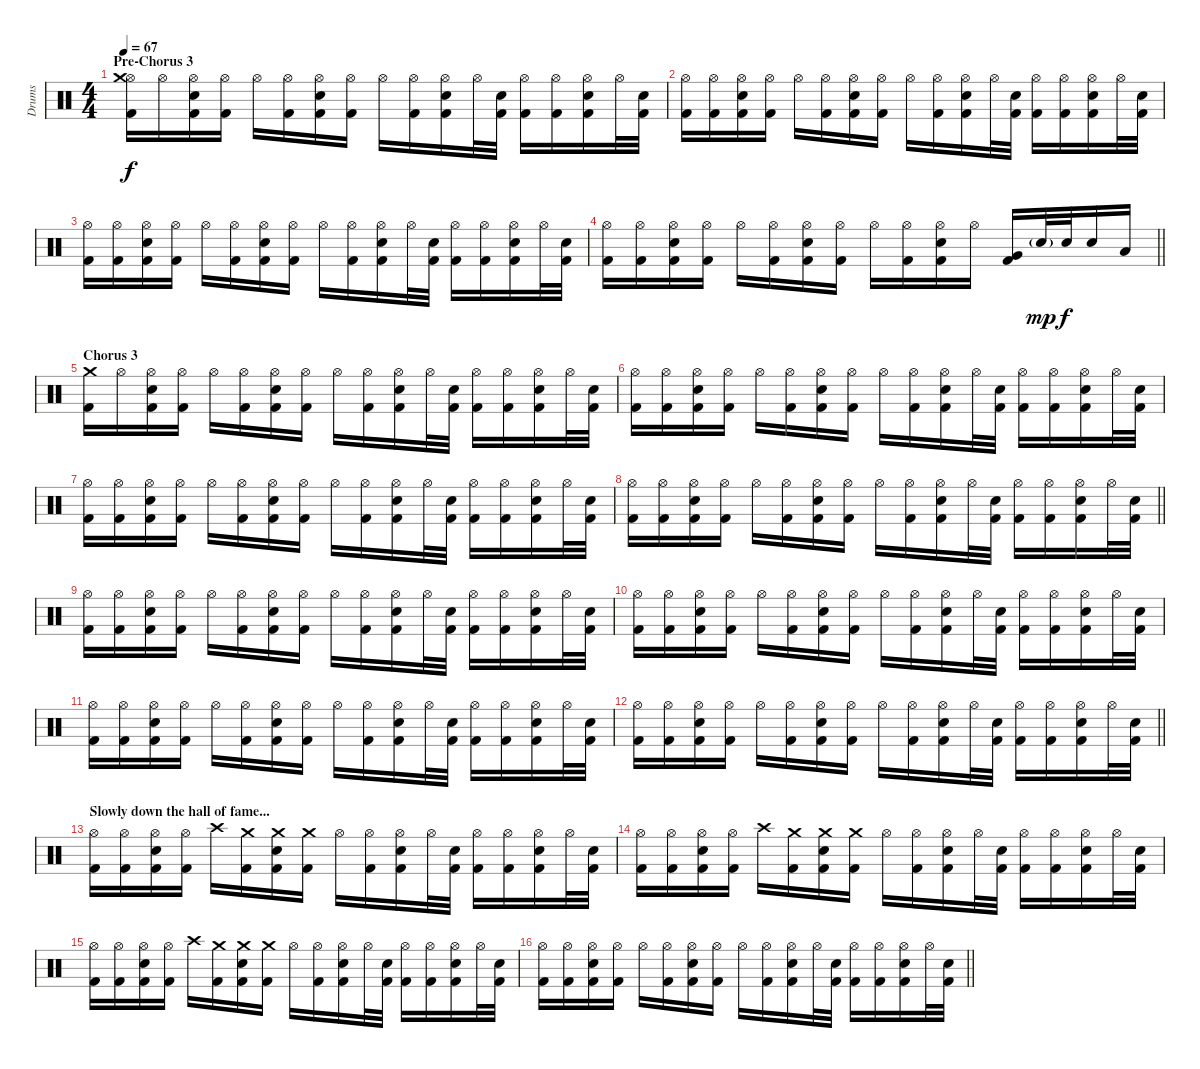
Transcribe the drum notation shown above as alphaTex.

\track ("Drums" "Drums") {instrument percussion}
\staff {score}
\articulation defaults
\ts (4 4)
\section ("" "Pre-Chorus 3")
\tempo 67
\clef neutral
\ks c
("Kick (hit) 2" "Hi-Hat (open)" "Crash medium (hit)").16{dy f} "Hi-Hat (open)".16 ("Kick (hit) 2" "Snare (hit) 2" "Hi-Hat (open)").16 ("Kick (hit) 2" "Hi-Hat (open)").16 "Hi-Hat (open)".16 ("Kick (hit) 2" "Hi-Hat (open)").16 ("Kick (hit) 2" "Snare (hit) 2" "Hi-Hat (open)").16 ("Kick (hit) 2" "Hi-Hat (open)").16 "Hi-Hat (open)".16 ("Kick (hit) 2" "Hi-Hat (open)").16 ("Kick (hit) 2" "Snare (hit) 2" "Hi-Hat (open)").16 "Hi-Hat (open)".32 ("Kick (hit) 2" "Snare (hit) 2").32 ("Kick (hit) 2" "Hi-Hat (open)").16 ("Kick (hit) 2" "Hi-Hat (open)").16 ("Kick (hit) 2" "Snare (hit) 2" "Hi-Hat (open)").16 "Hi-Hat (open)".32 ("Kick (hit) 2" "Snare (hit) 2").32 |
("Kick (hit) 2" "Hi-Hat (open)").16 ("Kick (hit) 2" "Hi-Hat (open)").16 ("Kick (hit) 2" "Snare (hit) 2" "Hi-Hat (open)").16 ("Kick (hit) 2" "Hi-Hat (open)").16 "Hi-Hat (open)".16 ("Kick (hit) 2" "Hi-Hat (open)").16 ("Kick (hit) 2" "Snare (hit) 2" "Hi-Hat (open)").16 ("Kick (hit) 2" "Hi-Hat (open)").16 "Hi-Hat (open)".16 ("Kick (hit) 2" "Hi-Hat (open)").16 ("Kick (hit) 2" "Snare (hit) 2" "Hi-Hat (open)").16 "Hi-Hat (open)".32 ("Kick (hit) 2" "Snare (hit) 2").32 ("Kick (hit) 2" "Hi-Hat (open)").16 ("Kick (hit) 2" "Hi-Hat (open)").16 ("Kick (hit) 2" "Snare (hit) 2" "Hi-Hat (open)").16 "Hi-Hat (open)".32 ("Kick (hit) 2" "Snare (hit) 2").32 |
("Kick (hit) 2" "Hi-Hat (open)").16 ("Kick (hit) 2" "Hi-Hat (open)").16 ("Kick (hit) 2" "Snare (hit) 2" "Hi-Hat (open)").16 ("Kick (hit) 2" "Hi-Hat (open)").16 "Hi-Hat (open)".16 ("Kick (hit) 2" "Hi-Hat (open)").16 ("Kick (hit) 2" "Snare (hit) 2" "Hi-Hat (open)").16 ("Kick (hit) 2" "Hi-Hat (open)").16 "Hi-Hat (open)".16 ("Kick (hit) 2" "Hi-Hat (open)").16 ("Kick (hit) 2" "Snare (hit) 2" "Hi-Hat (open)").16 "Hi-Hat (open)".32 ("Kick (hit) 2" "Snare (hit) 2").32 ("Kick (hit) 2" "Hi-Hat (open)").16 ("Kick (hit) 2" "Hi-Hat (open)").16 ("Kick (hit) 2" "Snare (hit) 2" "Hi-Hat (open)").16 "Hi-Hat (open)".32 ("Kick (hit) 2" "Snare (hit) 2").32 |
\barLineRight lightlight
("Kick (hit) 2" "Hi-Hat (open)").16 ("Kick (hit) 2" "Hi-Hat (open)").16 ("Kick (hit) 2" "Snare (hit) 2" "Hi-Hat (open)").16 ("Kick (hit) 2" "Hi-Hat (open)").16 "Hi-Hat (open)".16 ("Kick (hit) 2" "Hi-Hat (open)").16 ("Kick (hit) 2" "Snare (hit) 2" "Hi-Hat (open)").16 ("Kick (hit) 2" "Hi-Hat (open)").16 "Hi-Hat (open)".16 ("Kick (hit) 2" "Hi-Hat (open)").16 ("Kick (hit) 2" "Snare (hit) 2" "Hi-Hat (open)").16 "Hi-Hat (open)".16 ("Kick (hit) 2" "Very Low Tom (hit)").16 "Snare (hit) 2"{g}.32{dy mp} "Snare (hit) 2".32{dy f} "Snare (hit) 2".16 "Low Floor Tom (hit)".16 |
\section ("" "Chorus 3")
("Kick (hit) 2" "Crash medium (hit)").16 "Hi-Hat (open)".16 ("Kick (hit) 2" "Snare (hit) 2" "Hi-Hat (open)").16 ("Kick (hit) 2" "Hi-Hat (open)").16 "Hi-Hat (open)".16 ("Kick (hit) 2" "Hi-Hat (open)").16 ("Kick (hit) 2" "Snare (hit) 2" "Hi-Hat (open)").16 ("Kick (hit) 2" "Hi-Hat (open)").16 "Hi-Hat (open)".16 ("Kick (hit) 2" "Hi-Hat (open)").16 ("Kick (hit) 2" "Snare (hit) 2" "Hi-Hat (open)").16 "Hi-Hat (open)".32 ("Kick (hit) 2" "Snare (hit) 2").32 ("Kick (hit) 2" "Hi-Hat (open)").16 ("Kick (hit) 2" "Hi-Hat (open)").16 ("Kick (hit) 2" "Snare (hit) 2" "Hi-Hat (open)").16 "Hi-Hat (open)".32 ("Kick (hit) 2" "Snare (hit) 2").32 |
("Kick (hit) 2" "Hi-Hat (open)").16 ("Kick (hit) 2" "Hi-Hat (open)").16 ("Kick (hit) 2" "Snare (hit) 2" "Hi-Hat (open)").16 ("Kick (hit) 2" "Hi-Hat (open)").16 "Hi-Hat (open)".16 ("Kick (hit) 2" "Hi-Hat (open)").16 ("Kick (hit) 2" "Snare (hit) 2" "Hi-Hat (open)").16 ("Kick (hit) 2" "Hi-Hat (open)").16 "Hi-Hat (open)".16 ("Kick (hit) 2" "Hi-Hat (open)").16 ("Kick (hit) 2" "Snare (hit) 2" "Hi-Hat (open)").16 "Hi-Hat (open)".32 ("Kick (hit) 2" "Snare (hit) 2").32 ("Kick (hit) 2" "Hi-Hat (open)").16 ("Kick (hit) 2" "Hi-Hat (open)").16 ("Kick (hit) 2" "Snare (hit) 2" "Hi-Hat (open)").16 "Hi-Hat (open)".32 ("Kick (hit) 2" "Snare (hit) 2").32 |
("Kick (hit) 2" "Hi-Hat (open)").16 ("Kick (hit) 2" "Hi-Hat (open)").16 ("Kick (hit) 2" "Snare (hit) 2" "Hi-Hat (open)").16 ("Kick (hit) 2" "Hi-Hat (open)").16 "Hi-Hat (open)".16 ("Kick (hit) 2" "Hi-Hat (open)").16 ("Kick (hit) 2" "Snare (hit) 2" "Hi-Hat (open)").16 ("Kick (hit) 2" "Hi-Hat (open)").16 "Hi-Hat (open)".16 ("Kick (hit) 2" "Hi-Hat (open)").16 ("Kick (hit) 2" "Snare (hit) 2" "Hi-Hat (open)").16 "Hi-Hat (open)".32 ("Kick (hit) 2" "Snare (hit) 2").32 ("Kick (hit) 2" "Hi-Hat (open)").16 ("Kick (hit) 2" "Hi-Hat (open)").16 ("Kick (hit) 2" "Snare (hit) 2" "Hi-Hat (open)").16 "Hi-Hat (open)".32 ("Kick (hit) 2" "Snare (hit) 2").32 |
\barLineRight lightlight
("Kick (hit) 2" "Hi-Hat (open)").16 ("Kick (hit) 2" "Hi-Hat (open)").16 ("Kick (hit) 2" "Snare (hit) 2" "Hi-Hat (open)").16 ("Kick (hit) 2" "Hi-Hat (open)").16 "Hi-Hat (open)".16 ("Kick (hit) 2" "Hi-Hat (open)").16 ("Kick (hit) 2" "Snare (hit) 2" "Hi-Hat (open)").16 ("Kick (hit) 2" "Hi-Hat (open)").16 "Hi-Hat (open)".16 ("Kick (hit) 2" "Hi-Hat (open)").16 ("Kick (hit) 2" "Snare (hit) 2" "Hi-Hat (open)").16 "Hi-Hat (open)".32 ("Kick (hit) 2" "Snare (hit) 2").32 ("Kick (hit) 2" "Hi-Hat (open)").16 ("Kick (hit) 2" "Hi-Hat (open)").16 ("Kick (hit) 2" "Snare (hit) 2" "Hi-Hat (open)").16 "Hi-Hat (open)".32 ("Kick (hit) 2" "Snare (hit) 2").32 |
("Kick (hit) 2" "Hi-Hat (open)").16 ("Kick (hit) 2" "Hi-Hat (open)").16 ("Kick (hit) 2" "Snare (hit) 2" "Hi-Hat (open)").16 ("Kick (hit) 2" "Hi-Hat (open)").16 "Hi-Hat (open)".16 ("Kick (hit) 2" "Hi-Hat (open)").16 ("Kick (hit) 2" "Snare (hit) 2" "Hi-Hat (open)").16 ("Kick (hit) 2" "Hi-Hat (open)").16 "Hi-Hat (open)".16 ("Kick (hit) 2" "Hi-Hat (open)").16 ("Kick (hit) 2" "Snare (hit) 2" "Hi-Hat (open)").16 "Hi-Hat (open)".32 ("Kick (hit) 2" "Snare (hit) 2").32 ("Kick (hit) 2" "Hi-Hat (open)").16 ("Kick (hit) 2" "Hi-Hat (open)").16 ("Kick (hit) 2" "Snare (hit) 2" "Hi-Hat (open)").16 "Hi-Hat (open)".32 ("Kick (hit) 2" "Snare (hit) 2").32 |
("Kick (hit) 2" "Hi-Hat (open)").16 ("Kick (hit) 2" "Hi-Hat (open)").16 ("Kick (hit) 2" "Snare (hit) 2" "Hi-Hat (open)").16 ("Kick (hit) 2" "Hi-Hat (open)").16 "Hi-Hat (open)".16 ("Kick (hit) 2" "Hi-Hat (open)").16 ("Kick (hit) 2" "Snare (hit) 2" "Hi-Hat (open)").16 ("Kick (hit) 2" "Hi-Hat (open)").16 "Hi-Hat (open)".16 ("Kick (hit) 2" "Hi-Hat (open)").16 ("Kick (hit) 2" "Snare (hit) 2" "Hi-Hat (open)").16 "Hi-Hat (open)".32 ("Kick (hit) 2" "Snare (hit) 2").32 ("Kick (hit) 2" "Hi-Hat (open)").16 ("Kick (hit) 2" "Hi-Hat (open)").16 ("Kick (hit) 2" "Snare (hit) 2" "Hi-Hat (open)").16 "Hi-Hat (open)".32 ("Kick (hit) 2" "Snare (hit) 2").32 |
("Kick (hit) 2" "Hi-Hat (open)").16 ("Kick (hit) 2" "Hi-Hat (open)").16 ("Kick (hit) 2" "Snare (hit) 2" "Hi-Hat (open)").16 ("Kick (hit) 2" "Hi-Hat (open)").16 "Hi-Hat (open)".16 ("Kick (hit) 2" "Hi-Hat (open)").16 ("Kick (hit) 2" "Snare (hit) 2" "Hi-Hat (open)").16 ("Kick (hit) 2" "Hi-Hat (open)").16 "Hi-Hat (open)".16 ("Kick (hit) 2" "Hi-Hat (open)").16 ("Kick (hit) 2" "Snare (hit) 2" "Hi-Hat (open)").16 "Hi-Hat (open)".32 ("Kick (hit) 2" "Snare (hit) 2").32 ("Kick (hit) 2" "Hi-Hat (open)").16 ("Kick (hit) 2" "Hi-Hat (open)").16 ("Kick (hit) 2" "Snare (hit) 2" "Hi-Hat (open)").16 "Hi-Hat (open)".32 ("Kick (hit) 2" "Snare (hit) 2").32 |
\barLineRight lightlight
("Kick (hit) 2" "Hi-Hat (open)").16 ("Kick (hit) 2" "Hi-Hat (open)").16 ("Kick (hit) 2" "Snare (hit) 2" "Hi-Hat (open)").16 ("Kick (hit) 2" "Hi-Hat (open)").16 "Hi-Hat (open)".16 ("Kick (hit) 2" "Hi-Hat (open)").16 ("Kick (hit) 2" "Snare (hit) 2" "Hi-Hat (open)").16 ("Kick (hit) 2" "Hi-Hat (open)").16 "Hi-Hat (open)".16 ("Kick (hit) 2" "Hi-Hat (open)").16 ("Kick (hit) 2" "Snare (hit) 2" "Hi-Hat (open)").16 "Hi-Hat (open)".32 ("Kick (hit) 2" "Snare (hit) 2").32 ("Kick (hit) 2" "Hi-Hat (open)").16 ("Kick (hit) 2" "Hi-Hat (open)").16 ("Kick (hit) 2" "Snare (hit) 2" "Hi-Hat (open)").16 "Hi-Hat (open)".32 ("Kick (hit) 2" "Snare (hit) 2").32 |
\section ("" "Slowly down the hall of fame...")
("Kick (hit) 2" "Hi-Hat (open)").16 ("Kick (hit) 2" "Hi-Hat (open)").16 ("Kick (hit) 2" "Snare (hit) 2" "Hi-Hat (open)").16 ("Kick (hit) 2" "Hi-Hat (open)").16 "Crash high (hit)".16 ("Kick (hit) 2" "Crash medium (hit)").16 ("Kick (hit) 2" "Snare (hit) 2" "Crash medium (hit)").16 ("Kick (hit) 2" "Crash medium (hit)").16 "Hi-Hat (open)".16 ("Kick (hit) 2" "Hi-Hat (open)").16 ("Kick (hit) 2" "Snare (hit) 2" "Hi-Hat (open)").16 "Hi-Hat (open)".32 ("Kick (hit) 2" "Snare (hit) 2").32 ("Kick (hit) 2" "Hi-Hat (open)").16 ("Kick (hit) 2" "Hi-Hat (open)").16 ("Kick (hit) 2" "Snare (hit) 2" "Hi-Hat (open)").16 "Hi-Hat (open)".32 ("Kick (hit) 2" "Snare (hit) 2").32 |
("Kick (hit) 2" "Hi-Hat (open)").16 ("Kick (hit) 2" "Hi-Hat (open)").16 ("Kick (hit) 2" "Snare (hit) 2" "Hi-Hat (open)").16 ("Kick (hit) 2" "Hi-Hat (open)").16 "Crash high (hit)".16 ("Kick (hit) 2" "Crash medium (hit)").16 ("Kick (hit) 2" "Snare (hit) 2" "Crash medium (hit)").16 ("Kick (hit) 2" "Crash medium (hit)").16 "Hi-Hat (open)".16 ("Kick (hit) 2" "Hi-Hat (open)").16 ("Kick (hit) 2" "Snare (hit) 2" "Hi-Hat (open)").16 "Hi-Hat (open)".32 ("Kick (hit) 2" "Snare (hit) 2").32 ("Kick (hit) 2" "Hi-Hat (open)").16 ("Kick (hit) 2" "Hi-Hat (open)").16 ("Kick (hit) 2" "Snare (hit) 2" "Hi-Hat (open)").16 "Hi-Hat (open)".32 ("Kick (hit) 2" "Snare (hit) 2").32 |
("Kick (hit) 2" "Hi-Hat (open)").16 ("Kick (hit) 2" "Hi-Hat (open)").16 ("Kick (hit) 2" "Snare (hit) 2" "Hi-Hat (open)").16 ("Kick (hit) 2" "Hi-Hat (open)").16 "Crash high (hit)".16 ("Kick (hit) 2" "Crash medium (hit)").16 ("Kick (hit) 2" "Snare (hit) 2" "Crash medium (hit)").16 ("Kick (hit) 2" "Crash medium (hit)").16 "Hi-Hat (open)".16 ("Kick (hit) 2" "Hi-Hat (open)").16 ("Kick (hit) 2" "Snare (hit) 2" "Hi-Hat (open)").16 "Hi-Hat (open)".32 ("Kick (hit) 2" "Snare (hit) 2").32 ("Kick (hit) 2" "Hi-Hat (open)").16 ("Kick (hit) 2" "Hi-Hat (open)").16 ("Kick (hit) 2" "Snare (hit) 2" "Hi-Hat (open)").16 "Hi-Hat (open)".32 ("Kick (hit) 2" "Snare (hit) 2").32 |
\barLineRight lightlight
("Kick (hit) 2" "Hi-Hat (open)").16 ("Kick (hit) 2" "Hi-Hat (open)").16 ("Kick (hit) 2" "Snare (hit) 2" "Hi-Hat (open)").16 ("Kick (hit) 2" "Hi-Hat (open)").16 "Hi-Hat (open)".16 ("Kick (hit) 2" "Hi-Hat (open)").16 ("Kick (hit) 2" "Snare (hit) 2" "Hi-Hat (open)").16 ("Kick (hit) 2" "Hi-Hat (open)").16 "Hi-Hat (open)".16 ("Kick (hit) 2" "Hi-Hat (open)").16 ("Kick (hit) 2" "Snare (hit) 2" "Hi-Hat (open)").16 "Hi-Hat (open)".32 ("Kick (hit) 2" "Snare (hit) 2").32 ("Kick (hit) 2" "Hi-Hat (open)").16 ("Kick (hit) 2" "Hi-Hat (open)").16 ("Kick (hit) 2" "Snare (hit) 2" "Hi-Hat (open)").16 "Hi-Hat (open)".32 ("Kick (hit) 2" "Snare (hit) 2").32
